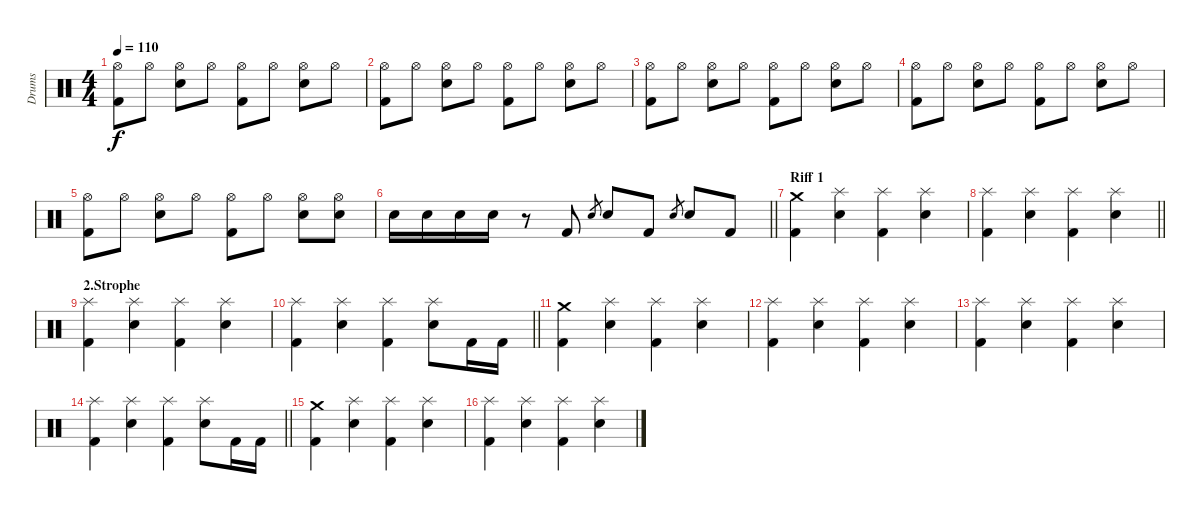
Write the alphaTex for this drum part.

\track ("Drums" "Drums") {instrument percussion}
\staff {score}
\articulation defaults
\ts (4 4)
\tempo 110
\clef neutral
\ks c
("Hi-Hat (open)" "Kick (hit) 2").8{dy f} "Hi-Hat (open)".8 ("Hi-Hat (open)" "Snare (hit) 2").8 "Hi-Hat (open)".8 ("Hi-Hat (open)" "Kick (hit) 2").8 "Hi-Hat (open)".8 ("Hi-Hat (open)" "Snare (hit) 2").8 "Hi-Hat (open)".8 |
("Hi-Hat (open)" "Kick (hit) 2").8 "Hi-Hat (open)".8 ("Hi-Hat (open)" "Snare (hit) 2").8 "Hi-Hat (open)".8 ("Hi-Hat (open)" "Kick (hit) 2").8 "Hi-Hat (open)".8 ("Hi-Hat (open)" "Snare (hit) 2").8 "Hi-Hat (open)".8 |
("Hi-Hat (open)" "Kick (hit) 2").8 "Hi-Hat (open)".8 ("Hi-Hat (open)" "Snare (hit) 2").8 "Hi-Hat (open)".8 ("Hi-Hat (open)" "Kick (hit) 2").8 "Hi-Hat (open)".8 ("Hi-Hat (open)" "Snare (hit) 2").8 "Hi-Hat (open)".8 |
("Hi-Hat (open)" "Kick (hit) 2").8 "Hi-Hat (open)".8 ("Hi-Hat (open)" "Snare (hit) 2").8 "Hi-Hat (open)".8 ("Hi-Hat (open)" "Kick (hit) 2").8 "Hi-Hat (open)".8 ("Hi-Hat (open)" "Snare (hit) 2").8 "Hi-Hat (open)".8 |
("Hi-Hat (open)" "Kick (hit) 2").8 "Hi-Hat (open)".8 ("Hi-Hat (open)" "Snare (hit) 2").8 "Hi-Hat (open)".8 ("Hi-Hat (open)" "Kick (hit) 2").8 "Hi-Hat (open)".8 ("Hi-Hat (open)" "Snare (hit) 2").8 ("Hi-Hat (open)" "Snare (hit) 2").8 |
\barLineRight lightlight "Snare (hit) 2".16 "Snare (hit) 2".16 "Snare (hit) 2".16 "Snare (hit) 2".16
r.8 "Kick (hit) 2".8 "Snare (hit) 2".8{gr} "Snare (hit) 2".8 "Kick (hit) 2".8 "Snare (hit) 2".8{gr} "Snare (hit) 2".8 "Kick (hit) 2".8 |
\section ("" "Riff 1")
("Crash medium (hit)" "Kick (hit) 2").4 ("Splash (hit)" "Snare (hit) 2").4 ("Splash (hit)" "Kick (hit) 2").4 ("Splash (hit)" "Snare (hit) 2").4 |
\barLineRight lightlight
("Splash (hit)" "Kick (hit) 2").4 ("Splash (hit)" "Snare (hit) 2").4 ("Splash (hit)" "Kick (hit) 2").4 ("Splash (hit)" "Snare (hit) 2").4 |
\section ("" "2.Strophe")
("Splash (hit)" "Kick (hit) 2").4 ("Splash (hit)" "Snare (hit) 2").4 ("Splash (hit)" "Kick (hit) 2").4 ("Splash (hit)" "Snare (hit) 2").4 |
\barLineRight lightlight
("Splash (hit)" "Kick (hit) 2").4 ("Splash (hit)" "Snare (hit) 2").4 ("Splash (hit)" "Kick (hit) 2").4 ("Splash (hit)" "Snare (hit) 2").8 "Kick (hit) 2".16 "Kick (hit) 2".16 |
("Crash medium (hit)" "Kick (hit) 2").4 ("Splash (hit)" "Snare (hit) 2").4 ("Splash (hit)" "Kick (hit) 2").4 ("Splash (hit)" "Snare (hit) 2").4 |
("Splash (hit)" "Kick (hit) 2").4 ("Splash (hit)" "Snare (hit) 2").4 ("Splash (hit)" "Kick (hit) 2").4 ("Splash (hit)" "Snare (hit) 2").4 |
("Splash (hit)" "Kick (hit) 2").4 ("Splash (hit)" "Snare (hit) 2").4 ("Splash (hit)" "Kick (hit) 2").4 ("Splash (hit)" "Snare (hit) 2").4 |
\barLineRight lightlight
("Splash (hit)" "Kick (hit) 2").4 ("Splash (hit)" "Snare (hit) 2").4 ("Splash (hit)" "Kick (hit) 2").4 ("Splash (hit)" "Snare (hit) 2").8 "Kick (hit) 2".16 "Kick (hit) 2".16 |
("Crash medium (hit)" "Kick (hit) 2").4 ("Splash (hit)" "Snare (hit) 2").4 ("Splash (hit)" "Kick (hit) 2").4 ("Splash (hit)" "Snare (hit) 2").4 |
("Splash (hit)" "Kick (hit) 2").4 ("Splash (hit)" "Snare (hit) 2").4 ("Splash (hit)" "Kick (hit) 2").4 ("Splash (hit)" "Snare (hit) 2").4
